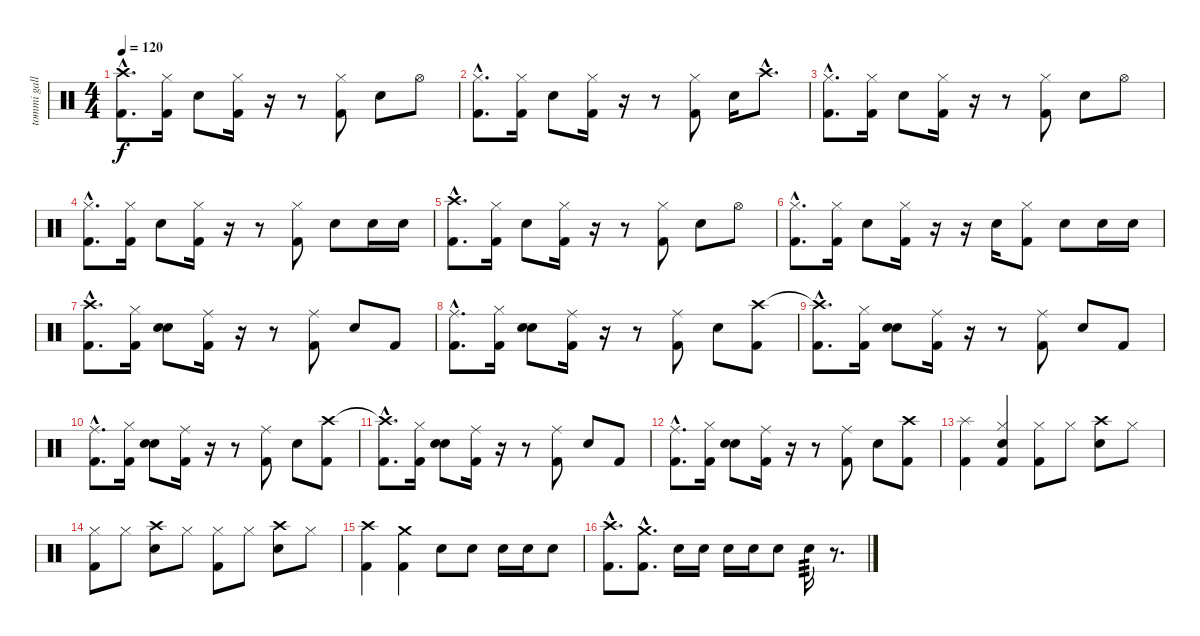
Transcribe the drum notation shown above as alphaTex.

\track ("tommi gallo" "tommi gall") {instrument percussion}
\staff {score}
\articulation defaults
\ts (4 4)
\tempo 120
\clef neutral
\ks c
("Crash high (hit)"{hac} "Kick (hit) 2"{hac}).8{d dy f} ("Hi-Hat (closed)" "Kick (hit) 2").16 "Snare (hit) 2".8 ("Hi-Hat (closed)" "Kick (hit) 2").16 r.16 r.8 ("Hi-Hat (closed)" "Kick (hit) 2").8 "Snare (hit) 2".8 "Hi-Hat (open)".8 |
("Hi-Hat (closed)"{hac} "Kick (hit) 2"{hac}).8{d} ("Hi-Hat (closed)" "Kick (hit) 2").16 "Snare (hit) 2".8 ("Hi-Hat (closed)" "Kick (hit) 2").16 r.16 r.8 ("Hi-Hat (closed)" "Kick (hit) 2").8 "Snare (hit) 2".16 "Crash high (hit)"{hac}.8{d} |
("Hi-Hat (closed)"{hac} "Kick (hit) 2"{hac}).8{d} ("Hi-Hat (closed)" "Kick (hit) 2").16 "Snare (hit) 2".8 ("Hi-Hat (closed)" "Kick (hit) 2").16 r.16 r.8 ("Hi-Hat (closed)" "Kick (hit) 2").8 "Snare (hit) 2".8 "Hi-Hat (open)".8 |
("Hi-Hat (closed)"{hac} "Kick (hit) 2"{hac}).8{d} ("Hi-Hat (closed)" "Kick (hit) 2").16 "Snare (hit) 2".8 ("Hi-Hat (closed)" "Kick (hit) 2").16 r.16 r.8 ("Hi-Hat (closed)" "Kick (hit) 2").8 "Snare (hit) 2".8 "Snare (hit) 2".16 "Snare (hit) 2".16 |
("Crash high (hit)"{hac} "Kick (hit) 2"{hac}).8{d} ("Hi-Hat (closed)" "Kick (hit) 2").16 "Snare (hit) 2".8 ("Hi-Hat (closed)" "Kick (hit) 2").16 r.16 r.8 ("Hi-Hat (closed)" "Kick (hit) 2").8 "Snare (hit) 2".8 "Hi-Hat (open)".8 |
("Hi-Hat (closed)"{hac} "Kick (hit) 2"{hac}).8{d} ("Hi-Hat (closed)" "Kick (hit) 2").16 "Snare (hit) 2".8 ("Hi-Hat (closed)" "Kick (hit) 2").16 r.16 r.16 "Snare (hit) 2".16 ("Hi-Hat (closed)" "Kick (hit) 2").8 "Snare (hit) 2".8 "Snare (hit) 2".16 "Snare (hit) 2".16 |
("Crash high (hit)"{hac} "Kick (hit) 2"{hac}).8{d} ("Hi-Hat (closed)" "Kick (hit) 2").16 ("Snare (hit) 2" "Snare (hit) 2").8 ("Ride (middle)" "Kick (hit) 2").16 r.16 r.8 ("Ride (middle)" "Kick (hit) 2").8 "Snare (hit) 2".8 "Kick (hit) 2".8 |
("Ride (middle)"{hac} "Kick (hit) 2"{hac}).8{d} ("Hi-Hat (closed)" "Kick (hit) 2").16 ("Snare (hit) 2" "Snare (hit) 2").8 ("Ride (middle)" "Kick (hit) 2").16 r.16 r.8 ("Ride (middle)" "Kick (hit) 2").8 "Snare (hit) 2".8 ("Crash high (hit)" "Kick (hit) 2").8 |
("Crash high (hit)"{hac t} "Kick (hit) 2"{hac}).8{d} ("Hi-Hat (closed)" "Kick (hit) 2").16 ("Snare (hit) 2" "Snare (hit) 2").8 ("Ride (middle)" "Kick (hit) 2").16 r.16 r.8 ("Ride (middle)" "Kick (hit) 2").8 "Snare (hit) 2".8 "Kick (hit) 2".8 |
("Ride (middle)"{hac} "Kick (hit) 2"{hac}).8{d} ("Hi-Hat (closed)" "Kick (hit) 2").16 ("Snare (hit) 2" "Snare (hit) 2").8 ("Ride (middle)" "Kick (hit) 2").16 r.16 r.8 ("Ride (middle)" "Kick (hit) 2").8 "Snare (hit) 2".8 ("Crash high (hit)" "Kick (hit) 2").8 |
("Crash high (hit)"{hac t} "Kick (hit) 2"{hac}).8{d} ("Hi-Hat (closed)" "Kick (hit) 2").16 ("Snare (hit) 2" "Snare (hit) 2").8 ("Ride (middle)" "Kick (hit) 2").16 r.16 r.8 ("Ride (middle)" "Kick (hit) 2").8 "Snare (hit) 2".8 "Kick (hit) 2".8 |
("Ride (middle)"{hac} "Kick (hit) 2"{hac}).8{d} ("Hi-Hat (closed)" "Kick (hit) 2").16 ("Snare (hit) 2" "Snare (hit) 2").8 ("Ride (middle)" "Kick (hit) 2").16 r.16 r.8 ("Ride (middle)" "Kick (hit) 2").8 "Snare (hit) 2".8 ("Crash high (hit)" "Kick (hit) 2").8 |
("Splash (hit)" "Kick (hit) 2").4 ("Hi-Hat (closed)" "Snare (hit) 2" "Kick (hit) 2").4 ("Hi-Hat (closed)" "Kick (hit) 2").8 "Hi-Hat (closed)".8 ("Crash high (hit)" "Snare (hit) 2").8 "Hi-Hat (closed)".8 |
("Hi-Hat (closed)" "Kick (hit) 2").8 "Hi-Hat (closed)".8 ("Crash high (hit)" "Snare (hit) 2").8 "Hi-Hat (closed)".8 ("Hi-Hat (closed)" "Kick (hit) 2").8 "Hi-Hat (closed)".8 ("Crash high (hit)" "Snare (hit) 2").8 "Hi-Hat (closed)".8 |
("Crash high (hit)" "Kick (hit) 2").4 ("Crash medium (hit)" "Kick (hit) 2").4 "Snare (hit) 2".8 "Snare (hit) 2".8 "Snare (hit) 2".16 "Snare (hit) 2".16 "Snare (hit) 2".8 |
("Crash high (hit)"{hac} "Kick (hit) 2"{hac}).8{d} ("Crash medium (hit)"{hac} "Kick (hit) 2"{hac}).8{d} "Snare (hit) 2".16 "Snare (hit) 2".16 "Snare (hit) 2".16 "Snare (hit) 2".16 "Snare (hit) 2".8 "Snare (hit) 2".16{tp 3} r.8{d}
